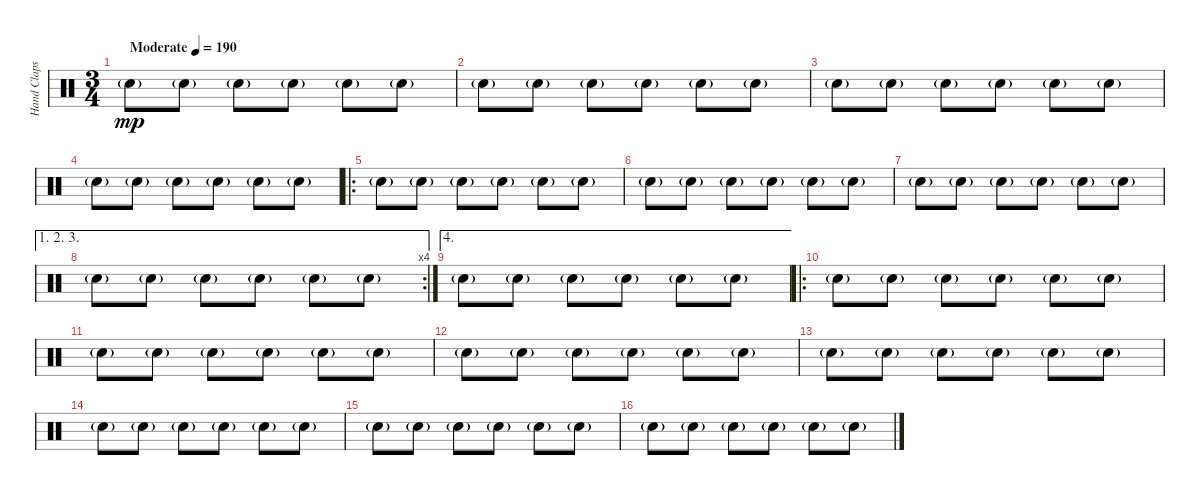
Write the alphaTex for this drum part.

\track ("Hand Claps" "Hand Claps") {instrument percussion bank 1}
\staff {score}
\articulation defaults
\ts (3 4)
\tempo (190 "Moderate")
\clef neutral
\ks c "Hand Clap (hit)"{g}.8{dy mp} "Hand Clap (hit)"{g}.8 "Hand Clap (hit)"{g}.8 "Hand Clap (hit)"{g}.8 "Hand Clap (hit)"{g}.8 "Hand Clap (hit)"{g}.8
|
"Hand Clap (hit)"{g}.8 "Hand Clap (hit)"{g}.8 "Hand Clap (hit)"{g}.8 "Hand Clap (hit)"{g}.8 "Hand Clap (hit)"{g}.8 "Hand Clap (hit)"{g}.8 |
"Hand Clap (hit)"{g}.8 "Hand Clap (hit)"{g}.8 "Hand Clap (hit)"{g}.8 "Hand Clap (hit)"{g}.8 "Hand Clap (hit)"{g}.8 "Hand Clap (hit)"{g}.8 |
"Hand Clap (hit)"{g}.8 "Hand Clap (hit)"{g}.8 "Hand Clap (hit)"{g}.8 "Hand Clap (hit)"{g}.8 "Hand Clap (hit)"{g}.8 "Hand Clap (hit)"{g}.8 |
\ro "Hand Clap (hit)"{g}.8 "Hand Clap (hit)"{g}.8 "Hand Clap (hit)"{g}.8 "Hand Clap (hit)"{g}.8 "Hand Clap (hit)"{g}.8 "Hand Clap (hit)"{g}.8
|
"Hand Clap (hit)"{g}.8 "Hand Clap (hit)"{g}.8 "Hand Clap (hit)"{g}.8 "Hand Clap (hit)"{g}.8 "Hand Clap (hit)"{g}.8 "Hand Clap (hit)"{g}.8 |
"Hand Clap (hit)"{g}.8 "Hand Clap (hit)"{g}.8 "Hand Clap (hit)"{g}.8 "Hand Clap (hit)"{g}.8 "Hand Clap (hit)"{g}.8 "Hand Clap (hit)"{g}.8 |
\ae (1 2 3)
\rc 4 "Hand Clap (hit)"{g}.8 "Hand Clap (hit)"{g}.8 "Hand Clap (hit)"{g}.8 "Hand Clap (hit)"{g}.8 "Hand Clap (hit)"{g}.8 "Hand Clap (hit)"{g}.8
|
\ae 4 "Hand Clap (hit)"{g}.8 "Hand Clap (hit)"{g}.8 "Hand Clap (hit)"{g}.8 "Hand Clap (hit)"{g}.8 "Hand Clap (hit)"{g}.8 "Hand Clap (hit)"{g}.8
|
\ro "Hand Clap (hit)"{g}.8 "Hand Clap (hit)"{g}.8 "Hand Clap (hit)"{g}.8 "Hand Clap (hit)"{g}.8 "Hand Clap (hit)"{g}.8 "Hand Clap (hit)"{g}.8
|
"Hand Clap (hit)"{g}.8 "Hand Clap (hit)"{g}.8 "Hand Clap (hit)"{g}.8 "Hand Clap (hit)"{g}.8 "Hand Clap (hit)"{g}.8 "Hand Clap (hit)"{g}.8 |
"Hand Clap (hit)"{g}.8 "Hand Clap (hit)"{g}.8 "Hand Clap (hit)"{g}.8 "Hand Clap (hit)"{g}.8 "Hand Clap (hit)"{g}.8 "Hand Clap (hit)"{g}.8 |
"Hand Clap (hit)"{g}.8 "Hand Clap (hit)"{g}.8 "Hand Clap (hit)"{g}.8 "Hand Clap (hit)"{g}.8 "Hand Clap (hit)"{g}.8 "Hand Clap (hit)"{g}.8 |
"Hand Clap (hit)"{g}.8 "Hand Clap (hit)"{g}.8 "Hand Clap (hit)"{g}.8 "Hand Clap (hit)"{g}.8 "Hand Clap (hit)"{g}.8 "Hand Clap (hit)"{g}.8 |
"Hand Clap (hit)"{g}.8 "Hand Clap (hit)"{g}.8 "Hand Clap (hit)"{g}.8 "Hand Clap (hit)"{g}.8 "Hand Clap (hit)"{g}.8 "Hand Clap (hit)"{g}.8 |
"Hand Clap (hit)"{g}.8 "Hand Clap (hit)"{g}.8 "Hand Clap (hit)"{g}.8 "Hand Clap (hit)"{g}.8 "Hand Clap (hit)"{g}.8 "Hand Clap (hit)"{g}.8
